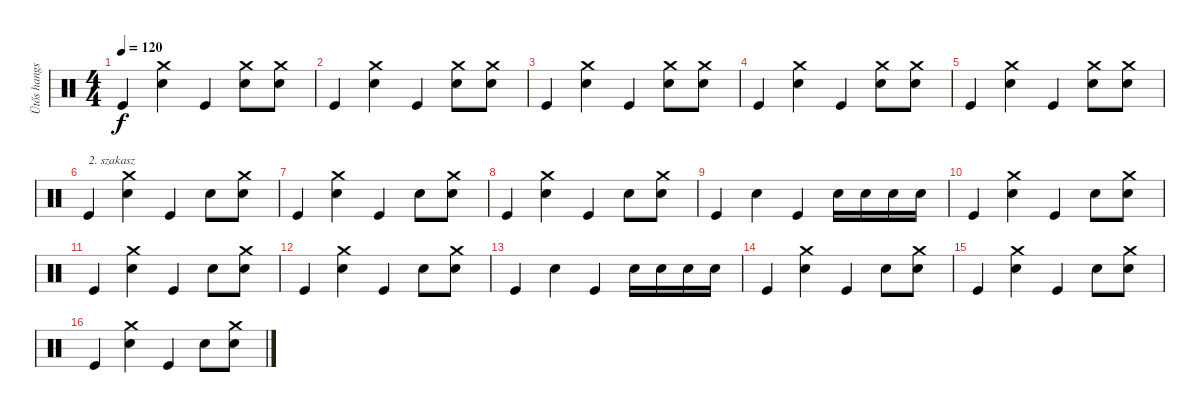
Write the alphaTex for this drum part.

\track ("Ütős hangszer" "Ütős hangs") {instrument percussion}
\staff {score}
\articulation defaults
\ts (4 4)
\tempo 120
\clef neutral
\ks c "Kick (hit)".4{dy f}
("Crash medium (hit)" "Snare (hit) 2").4 "Kick (hit)".4 ("Crash medium (hit)" "Snare (hit) 2").8 ("Crash medium (hit)" "Snare (hit) 2").8 |
"Kick (hit)".4 ("Crash medium (hit)" "Snare (hit) 2").4 "Kick (hit)".4 ("Crash medium (hit)" "Snare (hit) 2").8 ("Crash medium (hit)" "Snare (hit) 2").8 |
"Kick (hit)".4 ("Crash medium (hit)" "Snare (hit) 2").4 "Kick (hit)".4 ("Crash medium (hit)" "Snare (hit) 2").8 ("Crash medium (hit)" "Snare (hit) 2").8 |
"Kick (hit)".4 ("Crash medium (hit)" "Snare (hit) 2").4 "Kick (hit)".4 ("Crash medium (hit)" "Snare (hit) 2").8 ("Crash medium (hit)" "Snare (hit) 2").8 |
"Kick (hit)".4 ("Crash medium (hit)" "Snare (hit) 2").4 "Kick (hit)".4 ("Crash medium (hit)" "Snare (hit) 2").8 ("Crash medium (hit)" "Snare (hit) 2").8 |
"Kick (hit)".4{txt "2. szakasz"} ("Crash medium (hit)" "Snare (hit) 2").4 "Kick (hit)".4 "Snare (hit) 2".8 ("Crash medium (hit)" "Snare (hit) 2").8 |
"Kick (hit)".4 ("Crash medium (hit)" "Snare (hit) 2").4 "Kick (hit)".4 "Snare (hit) 2".8 ("Crash medium (hit)" "Snare (hit) 2").8 |
"Kick (hit)".4 ("Crash medium (hit)" "Snare (hit) 2").4 "Kick (hit)".4 "Snare (hit) 2".8 ("Crash medium (hit)" "Snare (hit) 2").8 |
"Kick (hit)".4 "Snare (hit) 2".4 "Kick (hit)".4 "Snare (hit) 2".16 "Snare (hit) 2".16 "Snare (hit) 2".16 "Snare (hit) 2".16 |
"Kick (hit)".4 ("Crash medium (hit)" "Snare (hit) 2").4 "Kick (hit)".4 "Snare (hit) 2".8 ("Crash medium (hit)" "Snare (hit) 2").8 |
"Kick (hit)".4 ("Crash medium (hit)" "Snare (hit) 2").4 "Kick (hit)".4 "Snare (hit) 2".8 ("Crash medium (hit)" "Snare (hit) 2").8 |
"Kick (hit)".4 ("Crash medium (hit)" "Snare (hit) 2").4 "Kick (hit)".4 "Snare (hit) 2".8 ("Crash medium (hit)" "Snare (hit) 2").8 |
"Kick (hit)".4 "Snare (hit) 2".4 "Kick (hit)".4 "Snare (hit) 2".16 "Snare (hit) 2".16 "Snare (hit) 2".16 "Snare (hit) 2".16 |
"Kick (hit)".4 ("Crash medium (hit)" "Snare (hit) 2").4 "Kick (hit)".4 "Snare (hit) 2".8 ("Crash medium (hit)" "Snare (hit) 2").8 |
"Kick (hit)".4 ("Crash medium (hit)" "Snare (hit) 2").4 "Kick (hit)".4 "Snare (hit) 2".8 ("Crash medium (hit)" "Snare (hit) 2").8 |
"Kick (hit)".4 ("Crash medium (hit)" "Snare (hit) 2").4 "Kick (hit)".4 "Snare (hit) 2".8 ("Crash medium (hit)" "Snare (hit) 2").8
